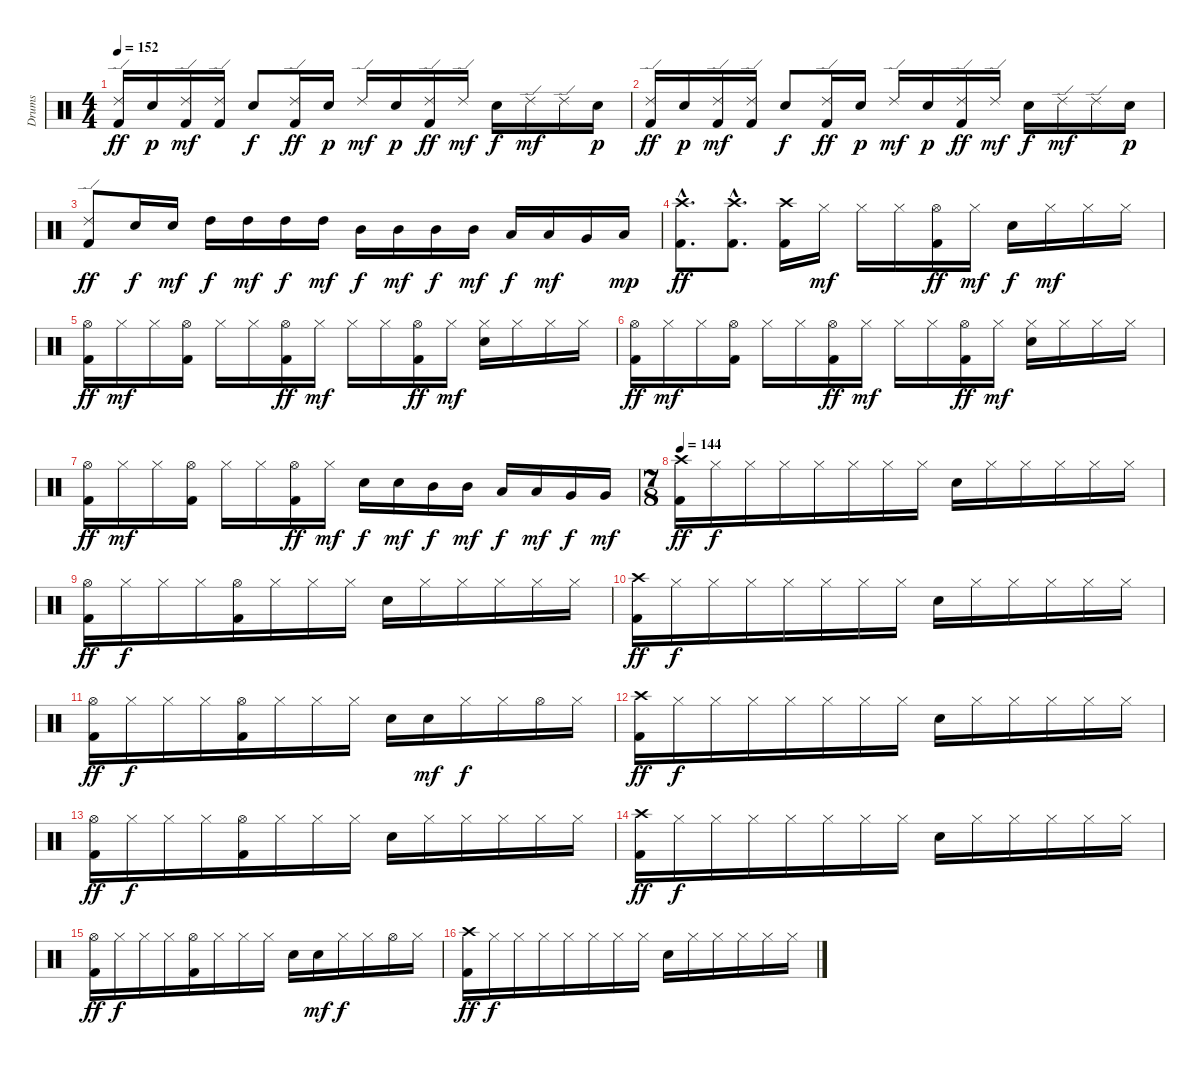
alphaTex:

\track ("Drums" "Drums") {instrument percussion}
\staff {score}
\articulation defaults
\ts (4 4)
\tempo 152
\clef neutral
\ks c
("Ride (edge) 2" "Kick (hit) 2").16{dy ff} "Snare (hit) 2".16{dy p} ("Ride (edge) 2" "Kick (hit) 2").16{dy mf} ("Ride (edge) 2" "Kick (hit) 2").16 "Snare (hit) 2".8{dy f} ("Ride (edge) 2" "Kick (hit) 2").16{dy ff} "Snare (hit) 2".16{dy p} "Ride (edge) 2".16{dy mf} "Snare (hit) 2".16{dy p} ("Ride (edge) 2" "Kick (hit) 2").16{dy ff} "Ride (edge) 2".16{dy mf} "Snare (hit) 2".16{dy f} "Ride (edge) 2".16{dy mf} "Ride (edge) 2".16 "Snare (hit) 2".16{dy p} |
("Ride (edge) 2" "Kick (hit) 2").16{dy ff} "Snare (hit) 2".16{dy p} ("Ride (edge) 2" "Kick (hit) 2").16{dy mf} ("Ride (edge) 2" "Kick (hit) 2").16 "Snare (hit) 2".8{dy f} ("Ride (edge) 2" "Kick (hit) 2").16{dy ff} "Snare (hit) 2".16{dy p} "Ride (edge) 2".16{dy mf} "Snare (hit) 2".16{dy p} ("Ride (edge) 2" "Kick (hit) 2").16{dy ff} "Ride (edge) 2".16{dy mf} "Snare (hit) 2".16{dy f} "Ride (edge) 2".16{dy mf} "Ride (edge) 2".16 "Snare (hit) 2".16{dy p} |
("Ride (edge) 2" "Kick (hit) 2").8{dy ff} "Snare (hit) 2".16{dy f} "Snare (hit) 2".16{dy mf} "High Tom (hit)".16{dy f} "High Tom (hit)".16{dy mf} "High Tom (hit)".16{dy f} "High Tom (hit)".16{dy mf} "Mid Tom (hit)".16{dy f} "Mid Tom (hit)".16{dy mf} "Mid Tom (hit)".16{dy f} "Mid Tom (hit)".16{dy mf} "Low Tom (hit)".16{dy f} "Low Tom (hit)".16{dy mf} "Very Low Tom (hit)".16 "Low Floor Tom (hit)".16{dy mp} |
("Crash high (hit)"{hac} "Kick (hit) 2"{hac}).8{d dy ff} ("Crash high (hit)"{hac} "Kick (hit) 2"{hac}).8{d} ("Crash high (hit)" "Kick (hit) 2").16 "Hi-Hat (closed)".16{dy mf} "Hi-Hat (closed)".16 "Hi-Hat (closed)".16 ("Hi-Hat (open)" "Kick (hit) 2").16{dy ff} "Hi-Hat (closed)".16{dy mf} "Snare (hit) 2".16{dy f} "Hi-Hat (closed)".16{dy mf} "Hi-Hat (closed)".16 "Hi-Hat (closed)".16 |
("Hi-Hat (open)" "Kick (hit) 2").16{dy ff} "Hi-Hat (closed)".16{dy mf} "Hi-Hat (closed)".16 ("Hi-Hat (open)" "Kick (hit) 2").16 "Hi-Hat (closed)".16 "Hi-Hat (closed)".16 ("Hi-Hat (open)" "Kick (hit) 2").16{dy ff} "Hi-Hat (closed)".16{dy mf} "Hi-Hat (closed)".16 "Hi-Hat (closed)".16 ("Hi-Hat (open)" "Kick (hit) 2").16{dy ff} "Hi-Hat (closed)".16{dy mf} ("Hi-Hat (closed)" "Snare (hit) 2").16 "Hi-Hat (closed)".16 "Hi-Hat (closed)".16 "Hi-Hat (closed)".16 |
("Hi-Hat (open)" "Kick (hit) 2").16{dy ff} "Hi-Hat (closed)".16{dy mf} "Hi-Hat (closed)".16 ("Hi-Hat (open)" "Kick (hit) 2").16 "Hi-Hat (closed)".16 "Hi-Hat (closed)".16 ("Hi-Hat (open)" "Kick (hit) 2").16{dy ff} "Hi-Hat (closed)".16{dy mf} "Hi-Hat (closed)".16 "Hi-Hat (closed)".16 ("Hi-Hat (open)" "Kick (hit) 2").16{dy ff} "Hi-Hat (closed)".16{dy mf} ("Hi-Hat (closed)" "Snare (hit) 2").16 "Hi-Hat (closed)".16 "Hi-Hat (closed)".16 "Hi-Hat (closed)".16 |
("Hi-Hat (open)" "Kick (hit) 2").16{dy ff} "Hi-Hat (closed)".16{dy mf} "Hi-Hat (closed)".16 ("Hi-Hat (open)" "Kick (hit) 2").16 "Hi-Hat (closed)".16 "Hi-Hat (closed)".16 ("Hi-Hat (open)" "Kick (hit) 2").16{dy ff} "Hi-Hat (closed)".16{dy mf} "Snare (hit) 2".16{dy f} "Snare (hit) 2".16{dy mf} "Mid Tom (hit)".16{dy f} "Mid Tom (hit)".16{dy mf} "Low Tom (hit)".16{dy f} "Low Tom (hit)".16{dy mf} "Very Low Tom (hit)".16{dy f} "Very Low Tom (hit)".16{dy mf} |
\ts (7 8)
\tempo 144
("Crash high (hit)" "Kick (hit) 2").16{dy ff} "Hi-Hat (closed)".16{dy f} "Hi-Hat (closed)".16 "Hi-Hat (closed)".16 "Hi-Hat (closed)".16 "Hi-Hat (closed)".16 "Hi-Hat (closed)".16 "Hi-Hat (closed)".16 "Snare (hit) 2".16 "Hi-Hat (closed)".16 "Hi-Hat (closed)".16 "Hi-Hat (closed)".16 "Hi-Hat (closed)".16 "Hi-Hat (closed)".16 |
("Hi-Hat (open)" "Kick (hit) 2").16{dy ff} "Hi-Hat (closed)".16{dy f} "Hi-Hat (closed)".16 "Hi-Hat (closed)".16 ("Hi-Hat (open)" "Kick (hit) 2").16 "Hi-Hat (closed)".16 "Hi-Hat (closed)".16 "Hi-Hat (closed)".16 "Snare (hit) 2".16 "Hi-Hat (closed)".16 "Hi-Hat (closed)".16 "Hi-Hat (closed)".16 "Hi-Hat (closed)".16 "Hi-Hat (closed)".16 |
("Crash high (hit)" "Kick (hit) 2").16{dy ff} "Hi-Hat (closed)".16{dy f} "Hi-Hat (closed)".16 "Hi-Hat (closed)".16 "Hi-Hat (closed)".16 "Hi-Hat (closed)".16 "Hi-Hat (closed)".16 "Hi-Hat (closed)".16 "Snare (hit) 2".16 "Hi-Hat (closed)".16 "Hi-Hat (closed)".16 "Hi-Hat (closed)".16 "Hi-Hat (closed)".16 "Hi-Hat (closed)".16 |
("Hi-Hat (open)" "Kick (hit) 2").16{dy ff} "Hi-Hat (closed)".16{dy f} "Hi-Hat (closed)".16 "Hi-Hat (closed)".16 ("Hi-Hat (open)" "Kick (hit) 2").16 "Hi-Hat (closed)".16 "Hi-Hat (closed)".16 "Hi-Hat (closed)".16 "Snare (hit) 2".16 "Snare (hit) 2".16{dy mf} "Hi-Hat (closed)".16{dy f} "Hi-Hat (closed)".16 "Hi-Hat (open)".16 "Hi-Hat (closed)".16 |
("Crash high (hit)" "Kick (hit) 2").16{dy ff} "Hi-Hat (closed)".16{dy f} "Hi-Hat (closed)".16 "Hi-Hat (closed)".16 "Hi-Hat (closed)".16 "Hi-Hat (closed)".16 "Hi-Hat (closed)".16 "Hi-Hat (closed)".16 "Snare (hit) 2".16 "Hi-Hat (closed)".16 "Hi-Hat (closed)".16 "Hi-Hat (closed)".16 "Hi-Hat (closed)".16 "Hi-Hat (closed)".16 |
("Hi-Hat (open)" "Kick (hit) 2").16{dy ff} "Hi-Hat (closed)".16{dy f} "Hi-Hat (closed)".16 "Hi-Hat (closed)".16 ("Hi-Hat (open)" "Kick (hit) 2").16 "Hi-Hat (closed)".16 "Hi-Hat (closed)".16 "Hi-Hat (closed)".16 "Snare (hit) 2".16 "Hi-Hat (closed)".16 "Hi-Hat (closed)".16 "Hi-Hat (closed)".16 "Hi-Hat (closed)".16 "Hi-Hat (closed)".16 |
("Crash high (hit)" "Kick (hit) 2").16{dy ff} "Hi-Hat (closed)".16{dy f} "Hi-Hat (closed)".16 "Hi-Hat (closed)".16 "Hi-Hat (closed)".16 "Hi-Hat (closed)".16 "Hi-Hat (closed)".16 "Hi-Hat (closed)".16 "Snare (hit) 2".16 "Hi-Hat (closed)".16 "Hi-Hat (closed)".16 "Hi-Hat (closed)".16 "Hi-Hat (closed)".16 "Hi-Hat (closed)".16 |
("Hi-Hat (open)" "Kick (hit) 2").16{dy ff} "Hi-Hat (closed)".16{dy f} "Hi-Hat (closed)".16 "Hi-Hat (closed)".16 ("Hi-Hat (open)" "Kick (hit) 2").16 "Hi-Hat (closed)".16 "Hi-Hat (closed)".16 "Hi-Hat (closed)".16 "Snare (hit) 2".16 "Snare (hit) 2".16{dy mf} "Hi-Hat (closed)".16{dy f} "Hi-Hat (closed)".16 "Hi-Hat (open)".16 "Hi-Hat (closed)".16 |
("Crash high (hit)" "Kick (hit) 2").16{dy ff} "Hi-Hat (closed)".16{dy f} "Hi-Hat (closed)".16 "Hi-Hat (closed)".16 "Hi-Hat (closed)".16 "Hi-Hat (closed)".16 "Hi-Hat (closed)".16 "Hi-Hat (closed)".16 "Snare (hit) 2".16 "Hi-Hat (closed)".16 "Hi-Hat (closed)".16 "Hi-Hat (closed)".16 "Hi-Hat (closed)".16 "Hi-Hat (closed)".16
